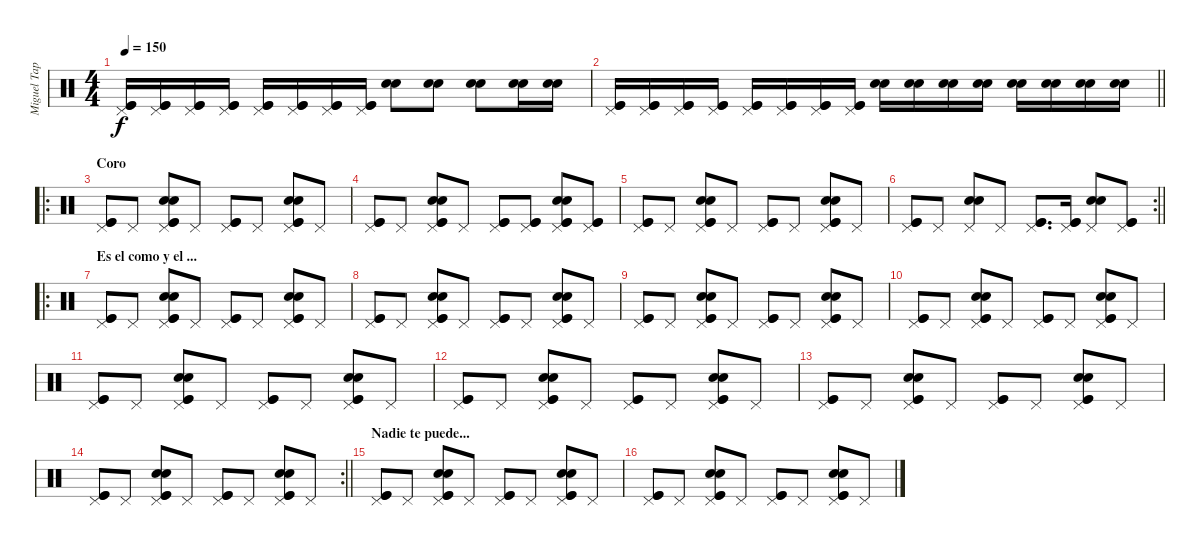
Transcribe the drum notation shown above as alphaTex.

\track ("Miguel Tapia" "Miguel Tap") {instrument percussion}
\staff {score}
\articulation defaults
\ts (4 4)
\tempo 150
\clef neutral
\ks c
("Pedal Hi-Hat (hit)" "Kick (hit)" "Kick (hit)").16{dy f} ("Pedal Hi-Hat (hit)" "Kick (hit)" "Kick (hit)").16 ("Pedal Hi-Hat (hit)" "Kick (hit)" "Kick (hit)").16 ("Pedal Hi-Hat (hit)" "Kick (hit)" "Kick (hit)").16 ("Pedal Hi-Hat (hit)" "Kick (hit)" "Kick (hit)").16 ("Pedal Hi-Hat (hit)" "Kick (hit)" "Kick (hit)").16 ("Pedal Hi-Hat (hit)" "Kick (hit)" "Kick (hit)").16 ("Pedal Hi-Hat (hit)" "Kick (hit)" "Kick (hit)").16 ("Snare (hit) 2" "Snare (hit) 2").8 ("Snare (hit) 2" "Snare (hit) 2").8 ("Snare (hit) 2" "Snare (hit) 2").8 ("Snare (hit) 2" "Snare (hit) 2").16 ("Snare (hit) 2" "Snare (hit) 2").16 |
\barLineRight lightlight
("Pedal Hi-Hat (hit)" "Kick (hit)" "Kick (hit)").16 ("Pedal Hi-Hat (hit)" "Kick (hit)" "Kick (hit)").16 ("Pedal Hi-Hat (hit)" "Kick (hit)" "Kick (hit)").16 ("Pedal Hi-Hat (hit)" "Kick (hit)" "Kick (hit)").16 ("Pedal Hi-Hat (hit)" "Kick (hit)" "Kick (hit)").16 ("Pedal Hi-Hat (hit)" "Kick (hit)" "Kick (hit)").16 ("Pedal Hi-Hat (hit)" "Kick (hit)" "Kick (hit)").16 ("Pedal Hi-Hat (hit)" "Kick (hit)" "Kick (hit)").16 ("Snare (hit) 2" "Snare (hit) 2").16 ("Snare (hit) 2" "Snare (hit) 2").16 ("Snare (hit) 2" "Snare (hit) 2").16 ("Snare (hit) 2" "Snare (hit) 2").16 ("Snare (hit) 2" "Snare (hit) 2").16 ("Snare (hit) 2" "Snare (hit) 2").16 ("Snare (hit) 2" "Snare (hit) 2").16 ("Snare (hit) 2" "Snare (hit) 2").16 |
\ro
\section ("" "Coro")
("Pedal Hi-Hat (hit)" "Kick (hit)" "Kick (hit)").8 "Pedal Hi-Hat (hit)".8 ("Pedal Hi-Hat (hit)" "Snare (hit) 2" "Snare (hit) 2" "Kick (hit)" "Kick (hit)").8 "Pedal Hi-Hat (hit)".8 ("Pedal Hi-Hat (hit)" "Kick (hit)" "Kick (hit)").8 "Pedal Hi-Hat (hit)".8 ("Pedal Hi-Hat (hit)" "Snare (hit) 2" "Snare (hit) 2" "Kick (hit)" "Kick (hit)").8 "Pedal Hi-Hat (hit)".8 |
("Pedal Hi-Hat (hit)" "Kick (hit)" "Kick (hit)").8 "Pedal Hi-Hat (hit)".8 ("Pedal Hi-Hat (hit)" "Snare (hit) 2" "Snare (hit) 2" "Kick (hit)" "Kick (hit)").8 "Pedal Hi-Hat (hit)".8 ("Pedal Hi-Hat (hit)" "Kick (hit)" "Kick (hit)").8 ("Pedal Hi-Hat (hit)" "Kick (hit)" "Kick (hit)").8 ("Pedal Hi-Hat (hit)" "Snare (hit) 2" "Snare (hit) 2" "Kick (hit)" "Kick (hit)").8 ("Pedal Hi-Hat (hit)" "Kick (hit)" "Kick (hit)").8 |
("Pedal Hi-Hat (hit)" "Kick (hit)" "Kick (hit)").8 "Pedal Hi-Hat (hit)".8 ("Pedal Hi-Hat (hit)" "Snare (hit) 2" "Snare (hit) 2" "Kick (hit)" "Kick (hit)").8 "Pedal Hi-Hat (hit)".8 ("Pedal Hi-Hat (hit)" "Kick (hit)" "Kick (hit)").8 "Pedal Hi-Hat (hit)".8 ("Pedal Hi-Hat (hit)" "Snare (hit) 2" "Snare (hit) 2" "Kick (hit)" "Kick (hit)").8 "Pedal Hi-Hat (hit)".8 |
\rc 2
\barLineRight lightlight
("Pedal Hi-Hat (hit)" "Kick (hit)" "Kick (hit)").8 "Pedal Hi-Hat (hit)".8 ("Pedal Hi-Hat (hit)" "Snare (hit) 2" "Snare (hit) 2").8 "Pedal Hi-Hat (hit)".8 ("Pedal Hi-Hat (hit)" "Kick (hit)" "Kick (hit)").8{d} ("Pedal Hi-Hat (hit)" "Kick (hit)" "Kick (hit)").16 ("Pedal Hi-Hat (hit)" "Snare (hit) 2" "Snare (hit) 2").8 ("Pedal Hi-Hat (hit)" "Kick (hit)" "Kick (hit)").8 |
\ro
\section ("" "Es el como y el ...")
("Pedal Hi-Hat (hit)" "Kick (hit)" "Kick (hit)").8 "Pedal Hi-Hat (hit)".8 ("Pedal Hi-Hat (hit)" "Snare (hit) 2" "Snare (hit) 2" "Kick (hit)" "Kick (hit)").8 "Pedal Hi-Hat (hit)".8 ("Pedal Hi-Hat (hit)" "Kick (hit)" "Kick (hit)").8 "Pedal Hi-Hat (hit)".8 ("Pedal Hi-Hat (hit)" "Snare (hit) 2" "Snare (hit) 2" "Kick (hit)" "Kick (hit)").8 "Pedal Hi-Hat (hit)".8 |
("Pedal Hi-Hat (hit)" "Kick (hit)" "Kick (hit)").8 "Pedal Hi-Hat (hit)".8 ("Pedal Hi-Hat (hit)" "Snare (hit) 2" "Snare (hit) 2" "Kick (hit)" "Kick (hit)").8 "Pedal Hi-Hat (hit)".8 ("Pedal Hi-Hat (hit)" "Kick (hit)" "Kick (hit)").8 "Pedal Hi-Hat (hit)".8 ("Pedal Hi-Hat (hit)" "Snare (hit) 2" "Snare (hit) 2" "Kick (hit)" "Kick (hit)").8 "Pedal Hi-Hat (hit)".8 |
("Pedal Hi-Hat (hit)" "Kick (hit)" "Kick (hit)").8 "Pedal Hi-Hat (hit)".8 ("Pedal Hi-Hat (hit)" "Snare (hit) 2" "Snare (hit) 2" "Kick (hit)" "Kick (hit)").8 "Pedal Hi-Hat (hit)".8 ("Pedal Hi-Hat (hit)" "Kick (hit)" "Kick (hit)").8 "Pedal Hi-Hat (hit)".8 ("Pedal Hi-Hat (hit)" "Snare (hit) 2" "Snare (hit) 2" "Kick (hit)" "Kick (hit)").8 "Pedal Hi-Hat (hit)".8 |
("Pedal Hi-Hat (hit)" "Kick (hit)" "Kick (hit)").8 "Pedal Hi-Hat (hit)".8 ("Pedal Hi-Hat (hit)" "Snare (hit) 2" "Snare (hit) 2" "Kick (hit)" "Kick (hit)").8 "Pedal Hi-Hat (hit)".8 ("Pedal Hi-Hat (hit)" "Kick (hit)" "Kick (hit)").8 "Pedal Hi-Hat (hit)".8 ("Pedal Hi-Hat (hit)" "Snare (hit) 2" "Snare (hit) 2" "Kick (hit)" "Kick (hit)").8 "Pedal Hi-Hat (hit)".8 |
("Pedal Hi-Hat (hit)" "Kick (hit)" "Kick (hit)").8 "Pedal Hi-Hat (hit)".8 ("Pedal Hi-Hat (hit)" "Snare (hit) 2" "Snare (hit) 2" "Kick (hit)" "Kick (hit)").8 "Pedal Hi-Hat (hit)".8 ("Pedal Hi-Hat (hit)" "Kick (hit)" "Kick (hit)").8 "Pedal Hi-Hat (hit)".8 ("Pedal Hi-Hat (hit)" "Snare (hit) 2" "Snare (hit) 2" "Kick (hit)" "Kick (hit)").8 "Pedal Hi-Hat (hit)".8 |
("Pedal Hi-Hat (hit)" "Kick (hit)" "Kick (hit)").8 "Pedal Hi-Hat (hit)".8 ("Pedal Hi-Hat (hit)" "Snare (hit) 2" "Snare (hit) 2" "Kick (hit)" "Kick (hit)").8 "Pedal Hi-Hat (hit)".8 ("Pedal Hi-Hat (hit)" "Kick (hit)" "Kick (hit)").8 "Pedal Hi-Hat (hit)".8 ("Pedal Hi-Hat (hit)" "Snare (hit) 2" "Snare (hit) 2" "Kick (hit)" "Kick (hit)").8 "Pedal Hi-Hat (hit)".8 |
("Pedal Hi-Hat (hit)" "Kick (hit)" "Kick (hit)").8 "Pedal Hi-Hat (hit)".8 ("Pedal Hi-Hat (hit)" "Snare (hit) 2" "Snare (hit) 2" "Kick (hit)" "Kick (hit)").8 "Pedal Hi-Hat (hit)".8 ("Pedal Hi-Hat (hit)" "Kick (hit)" "Kick (hit)").8 "Pedal Hi-Hat (hit)".8 ("Pedal Hi-Hat (hit)" "Snare (hit) 2" "Snare (hit) 2" "Kick (hit)" "Kick (hit)").8 "Pedal Hi-Hat (hit)".8 |
\rc 2
\barLineRight lightlight
("Pedal Hi-Hat (hit)" "Kick (hit)" "Kick (hit)").8 "Pedal Hi-Hat (hit)".8 ("Pedal Hi-Hat (hit)" "Snare (hit) 2" "Snare (hit) 2" "Kick (hit)" "Kick (hit)").8 "Pedal Hi-Hat (hit)".8 ("Pedal Hi-Hat (hit)" "Kick (hit)" "Kick (hit)").8 "Pedal Hi-Hat (hit)".8 ("Pedal Hi-Hat (hit)" "Snare (hit) 2" "Snare (hit) 2" "Kick (hit)" "Kick (hit)").8 "Pedal Hi-Hat (hit)".8 |
\section ("" "Nadie te puede...")
("Pedal Hi-Hat (hit)" "Kick (hit)" "Kick (hit)").8 "Pedal Hi-Hat (hit)".8 ("Pedal Hi-Hat (hit)" "Snare (hit) 2" "Snare (hit) 2" "Kick (hit)" "Kick (hit)").8 "Pedal Hi-Hat (hit)".8 ("Pedal Hi-Hat (hit)" "Kick (hit)" "Kick (hit)").8 "Pedal Hi-Hat (hit)".8 ("Pedal Hi-Hat (hit)" "Snare (hit) 2" "Snare (hit) 2" "Kick (hit)" "Kick (hit)").8 "Pedal Hi-Hat (hit)".8 |
("Pedal Hi-Hat (hit)" "Kick (hit)" "Kick (hit)").8 "Pedal Hi-Hat (hit)".8 ("Pedal Hi-Hat (hit)" "Snare (hit) 2" "Snare (hit) 2" "Kick (hit)" "Kick (hit)").8 "Pedal Hi-Hat (hit)".8 ("Pedal Hi-Hat (hit)" "Kick (hit)" "Kick (hit)").8 "Pedal Hi-Hat (hit)".8 ("Pedal Hi-Hat (hit)" "Snare (hit) 2" "Snare (hit) 2" "Kick (hit)" "Kick (hit)").8 "Pedal Hi-Hat (hit)".8
